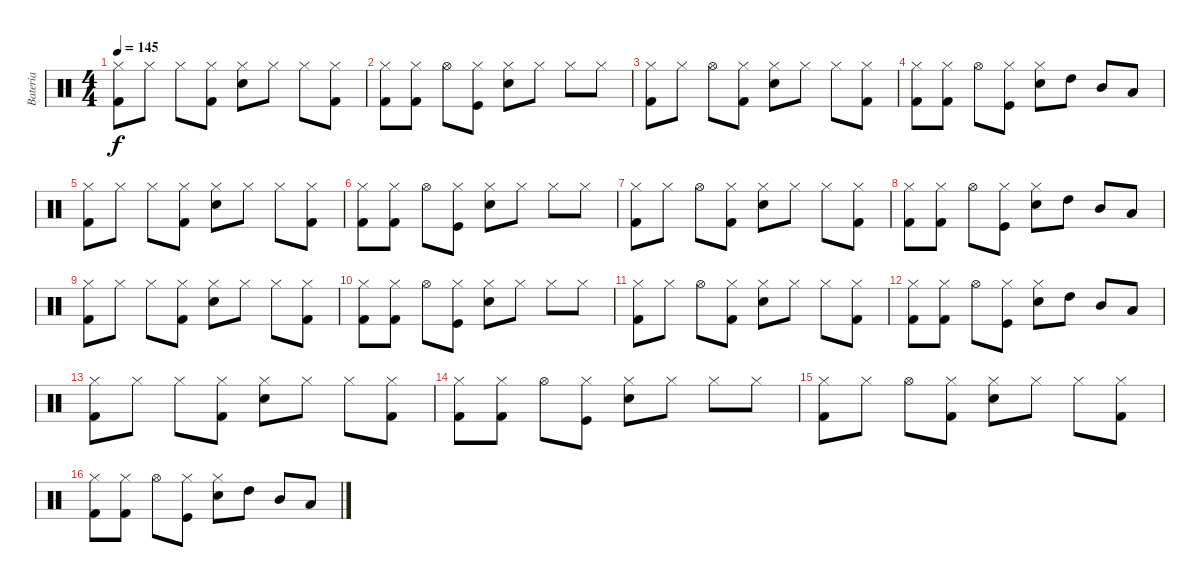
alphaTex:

\track ("Bateria" "Bateria") {instrument percussion}
\staff {score}
\articulation defaults
\ts (4 4)
\tempo 145
\clef neutral
\ks c
("Kick (hit) 2" "Hi-Hat (closed)").8{dy f} "Hi-Hat (closed)".8 "Hi-Hat (closed)".8 ("Kick (hit) 2" "Hi-Hat (closed)").8 ("Electric Snare (hit)" "Hi-Hat (closed)").8 "Hi-Hat (closed)".8 "Hi-Hat (closed)".8 ("Kick (hit) 2" "Hi-Hat (closed)").8 |
("Kick (hit) 2" "Hi-Hat (closed)").8 ("Kick (hit) 2" "Hi-Hat (closed)").8 "Hi-Hat (open)".8 ("Kick (hit)" "Hi-Hat (closed)").8 ("Electric Snare (hit)" "Hi-Hat (closed)").8 "Hi-Hat (closed)".8 "Hi-Hat (closed)".8 "Hi-Hat (closed)".8 |
("Kick (hit) 2" "Hi-Hat (closed)").8 "Hi-Hat (closed)".8 "Hi-Hat (open)".8 ("Kick (hit) 2" "Hi-Hat (closed)").8 ("Electric Snare (hit)" "Hi-Hat (closed)").8 "Hi-Hat (closed)".8 "Hi-Hat (closed)".8 ("Kick (hit) 2" "Hi-Hat (closed)").8 |
("Kick (hit) 2" "Hi-Hat (closed)").8 ("Kick (hit) 2" "Hi-Hat (closed)").8 "Hi-Hat (open)".8 ("Kick (hit)" "Hi-Hat (closed)").8 ("Electric Snare (hit)" "Hi-Hat (closed)").8 "High Tom (hit)".8 "Mid Tom (hit)".8 "Low Tom (hit)".8 |
("Kick (hit) 2" "Hi-Hat (closed)").8 "Hi-Hat (closed)".8 "Hi-Hat (closed)".8 ("Kick (hit) 2" "Hi-Hat (closed)").8 ("Electric Snare (hit)" "Hi-Hat (closed)").8 "Hi-Hat (closed)".8 "Hi-Hat (closed)".8 ("Kick (hit) 2" "Hi-Hat (closed)").8 |
("Kick (hit) 2" "Hi-Hat (closed)").8 ("Kick (hit) 2" "Hi-Hat (closed)").8 "Hi-Hat (open)".8 ("Kick (hit)" "Hi-Hat (closed)").8 ("Electric Snare (hit)" "Hi-Hat (closed)").8 "Hi-Hat (closed)".8 "Hi-Hat (closed)".8 "Hi-Hat (closed)".8 |
("Kick (hit) 2" "Hi-Hat (closed)").8 "Hi-Hat (closed)".8 "Hi-Hat (open)".8 ("Kick (hit) 2" "Hi-Hat (closed)").8 ("Electric Snare (hit)" "Hi-Hat (closed)").8 "Hi-Hat (closed)".8 "Hi-Hat (closed)".8 ("Kick (hit) 2" "Hi-Hat (closed)").8 |
("Kick (hit) 2" "Hi-Hat (closed)").8 ("Kick (hit) 2" "Hi-Hat (closed)").8 "Hi-Hat (open)".8 ("Kick (hit)" "Hi-Hat (closed)").8 ("Electric Snare (hit)" "Hi-Hat (closed)").8 "High Tom (hit)".8 "Mid Tom (hit)".8 "Low Tom (hit)".8 |
("Kick (hit) 2" "Hi-Hat (closed)").8 "Hi-Hat (closed)".8 "Hi-Hat (closed)".8 ("Kick (hit) 2" "Hi-Hat (closed)").8 ("Electric Snare (hit)" "Hi-Hat (closed)").8 "Hi-Hat (closed)".8 "Hi-Hat (closed)".8 ("Kick (hit) 2" "Hi-Hat (closed)").8 |
("Kick (hit) 2" "Hi-Hat (closed)").8 ("Kick (hit) 2" "Hi-Hat (closed)").8 "Hi-Hat (open)".8 ("Kick (hit)" "Hi-Hat (closed)").8 ("Electric Snare (hit)" "Hi-Hat (closed)").8 "Hi-Hat (closed)".8 "Hi-Hat (closed)".8 "Hi-Hat (closed)".8 |
("Kick (hit) 2" "Hi-Hat (closed)").8 "Hi-Hat (closed)".8 "Hi-Hat (open)".8 ("Kick (hit) 2" "Hi-Hat (closed)").8 ("Electric Snare (hit)" "Hi-Hat (closed)").8 "Hi-Hat (closed)".8 "Hi-Hat (closed)".8 ("Kick (hit) 2" "Hi-Hat (closed)").8 |
("Kick (hit) 2" "Hi-Hat (closed)").8 ("Kick (hit) 2" "Hi-Hat (closed)").8 "Hi-Hat (open)".8 ("Kick (hit)" "Hi-Hat (closed)").8 ("Electric Snare (hit)" "Hi-Hat (closed)").8 "High Tom (hit)".8 "Mid Tom (hit)".8 "Low Tom (hit)".8 |
("Kick (hit) 2" "Hi-Hat (closed)").8 "Hi-Hat (closed)".8 "Hi-Hat (closed)".8 ("Kick (hit) 2" "Hi-Hat (closed)").8 ("Electric Snare (hit)" "Hi-Hat (closed)").8 "Hi-Hat (closed)".8 "Hi-Hat (closed)".8 ("Kick (hit) 2" "Hi-Hat (closed)").8 |
("Kick (hit) 2" "Hi-Hat (closed)").8 ("Kick (hit) 2" "Hi-Hat (closed)").8 "Hi-Hat (open)".8 ("Kick (hit)" "Hi-Hat (closed)").8 ("Electric Snare (hit)" "Hi-Hat (closed)").8 "Hi-Hat (closed)".8 "Hi-Hat (closed)".8 "Hi-Hat (closed)".8 |
("Kick (hit) 2" "Hi-Hat (closed)").8 "Hi-Hat (closed)".8 "Hi-Hat (open)".8 ("Kick (hit) 2" "Hi-Hat (closed)").8 ("Electric Snare (hit)" "Hi-Hat (closed)").8 "Hi-Hat (closed)".8 "Hi-Hat (closed)".8 ("Kick (hit) 2" "Hi-Hat (closed)").8 |
("Kick (hit) 2" "Hi-Hat (closed)").8 ("Kick (hit) 2" "Hi-Hat (closed)").8 "Hi-Hat (open)".8 ("Kick (hit)" "Hi-Hat (closed)").8 ("Electric Snare (hit)" "Hi-Hat (closed)").8 "High Tom (hit)".8 "Mid Tom (hit)".8 "Low Tom (hit)".8
